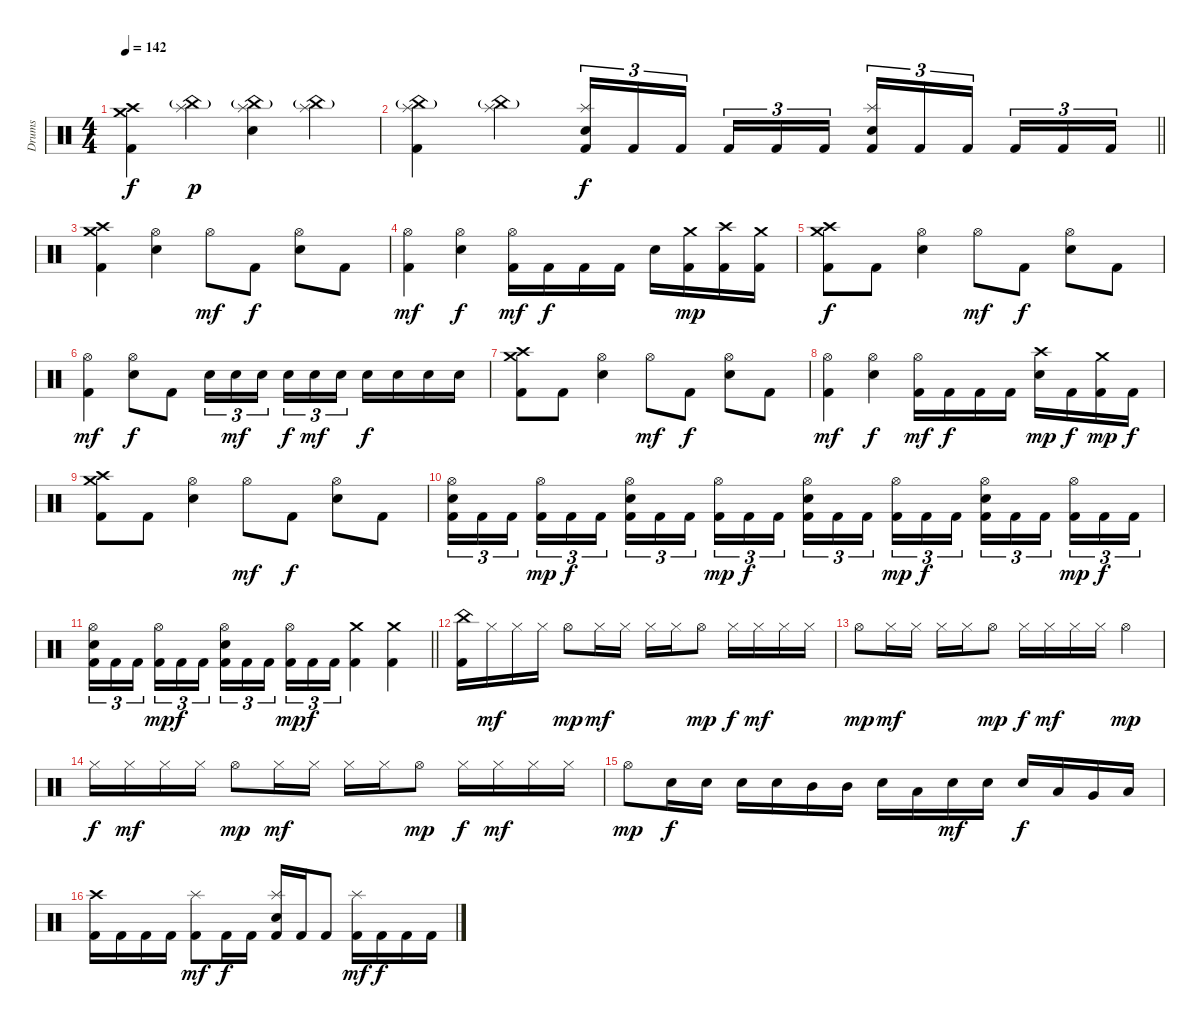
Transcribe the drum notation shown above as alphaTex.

\track ("Drums" "Drums") {instrument percussion}
\staff {score}
\articulation defaults
\ts (4 4)
\tempo 142
\clef neutral
\ks c
("Crash high (hit)" "Crash medium (hit)" "Kick (hit) 2").4{dy f} ("Splash (hit)" "China (hit)"{g}).4{dy p} ("Splash (hit)" "China (hit)"{g} "Electric Snare (hit)").4 ("Splash (hit)" "China (hit)"{g}).4 |
\barLineRight lightlight
("Splash (hit)" "China (hit)"{g} "Kick (hit) 2").4 ("Splash (hit)" "China (hit)"{g}).4 ("Splash (hit)" "Electric Snare (hit)" "Kick (hit) 2").16{tu (3 2) dy f} "Kick (hit) 2".16{tu (3 2)} "Kick (hit) 2".16{tu (3 2)} "Kick (hit) 2".16{tu (3 2)} "Kick (hit) 2".16{tu (3 2)} "Kick (hit) 2".16{tu (3 2)} ("Splash (hit)" "Electric Snare (hit)" "Kick (hit) 2").16{tu (3 2)} "Kick (hit) 2".16{tu (3 2)} "Kick (hit) 2".16{tu (3 2)} "Kick (hit) 2".16{tu (3 2)} "Kick (hit) 2".16{tu (3 2)} "Kick (hit) 2".16{tu (3 2)} |
("Crash high (hit)" "Crash medium (hit)" "Kick (hit) 2").4 ("Hi-Hat (open)" "Electric Snare (hit)").4 "Hi-Hat (open)".8{dy mf} "Kick (hit) 2".8{dy f} ("Hi-Hat (open)" "Electric Snare (hit)").8 "Kick (hit) 2".8 |
("Hi-Hat (open)" "Kick (hit) 2").4{dy mf} ("Hi-Hat (open)" "Electric Snare (hit)").4{dy f} ("Hi-Hat (open)" "Kick (hit) 2").16{dy mf} "Kick (hit) 2".16{dy f} "Kick (hit) 2".16 "Kick (hit) 2".16 "Electric Snare (hit)".16 ("Crash medium (hit)" "Kick (hit) 2").16{dy mp} ("Crash high (hit)" "Kick (hit) 2").16 ("Crash medium (hit)" "Kick (hit) 2").16 |
("Crash high (hit)" "Crash medium (hit)" "Kick (hit) 2").8{dy f} "Kick (hit) 2".8 ("Hi-Hat (open)" "Electric Snare (hit)").4 "Hi-Hat (open)".8{dy mf} "Kick (hit) 2".8{dy f} ("Hi-Hat (open)" "Electric Snare (hit)").8 "Kick (hit) 2".8 |
("Hi-Hat (open)" "Kick (hit) 2").4{dy mf} ("Hi-Hat (open)" "Electric Snare (hit)").8{dy f} "Kick (hit) 2".8 "Electric Snare (hit)".16{tu (3 2)} "Electric Snare (hit)".16{tu (3 2) dy mf} "Electric Snare (hit)".16{tu (3 2)} "Electric Snare (hit)".16{tu (3 2) dy f} "Electric Snare (hit)".16{tu (3 2) dy mf} "Electric Snare (hit)".16{tu (3 2)} "Electric Snare (hit)".16{dy f} "Electric Snare (hit)".16 "Electric Snare (hit)".16 "Electric Snare (hit)".16 |
("Crash high (hit)" "Crash medium (hit)" "Kick (hit) 2").8 "Kick (hit) 2".8 ("Hi-Hat (open)" "Electric Snare (hit)").4 "Hi-Hat (open)".8{dy mf} "Kick (hit) 2".8{dy f} ("Hi-Hat (open)" "Electric Snare (hit)").8 "Kick (hit) 2".8 |
("Hi-Hat (open)" "Kick (hit) 2").4{dy mf} ("Hi-Hat (open)" "Electric Snare (hit)").4{dy f} ("Hi-Hat (open)" "Kick (hit) 2").16{dy mf} "Kick (hit) 2".16{dy f} "Kick (hit) 2".16 "Kick (hit) 2".16 ("Crash high (hit)" "Electric Snare (hit)").16{dy mp} "Kick (hit) 2".16{dy f} ("Crash medium (hit)" "Kick (hit) 2").16{dy mp} "Kick (hit) 2".16{dy f} |
("Crash high (hit)" "Crash medium (hit)" "Kick (hit) 2").8 "Kick (hit) 2".8 ("Hi-Hat (open)" "Electric Snare (hit)").4 "Hi-Hat (open)".8{dy mf} "Kick (hit) 2".8{dy f} ("Hi-Hat (open)" "Electric Snare (hit)").8 "Kick (hit) 2".8 |
("Hi-Hat (open)" "Electric Snare (hit)" "Kick (hit) 2").16{tu (3 2)} "Kick (hit) 2".16{tu (3 2)} "Kick (hit) 2".16{tu (3 2)} ("Hi-Hat (open)" "Kick (hit) 2").16{tu (3 2) dy mp} "Kick (hit) 2".16{tu (3 2) dy f} "Kick (hit) 2".16{tu (3 2)} ("Hi-Hat (open)" "Electric Snare (hit)" "Kick (hit) 2").16{tu (3 2)} "Kick (hit) 2".16{tu (3 2)} "Kick (hit) 2".16{tu (3 2)} ("Hi-Hat (open)" "Kick (hit) 2").16{tu (3 2) dy mp} "Kick (hit) 2".16{tu (3 2) dy f} "Kick (hit) 2".16{tu (3 2)} ("Hi-Hat (open)" "Electric Snare (hit)" "Kick (hit) 2").16{tu (3 2)} "Kick (hit) 2".16{tu (3 2)} "Kick (hit) 2".16{tu (3 2)} ("Hi-Hat (open)" "Kick (hit) 2").16{tu (3 2) dy mp} "Kick (hit) 2".16{tu (3 2) dy f} "Kick (hit) 2".16{tu (3 2)} ("Hi-Hat (open)" "Electric Snare (hit)" "Kick (hit) 2").16{tu (3 2)} "Kick (hit) 2".16{tu (3 2)} "Kick (hit) 2".16{tu (3 2)} ("Hi-Hat (open)" "Kick (hit) 2").16{tu (3 2) dy mp} "Kick (hit) 2".16{tu (3 2) dy f} "Kick (hit) 2".16{tu (3 2)} |
\barLineRight lightlight
("Hi-Hat (open)" "Electric Snare (hit)" "Kick (hit) 2").16{tu (3 2)} "Kick (hit) 2".16{tu (3 2)} "Kick (hit) 2".16{tu (3 2)} ("Hi-Hat (open)" "Kick (hit) 2").16{tu (3 2) dy mp} "Kick (hit) 2".16{tu (3 2) dy f} "Kick (hit) 2".16{tu (3 2)} ("Hi-Hat (open)" "Electric Snare (hit)" "Kick (hit) 2").16{tu (3 2)} "Kick (hit) 2".16{tu (3 2)} "Kick (hit) 2".16{tu (3 2)} ("Hi-Hat (open)" "Kick (hit) 2").16{tu (3 2) dy mp} "Kick (hit) 2".16{tu (3 2) dy f} "Kick (hit) 2".16{tu (3 2)} ("Crash medium (hit)" "Kick (hit) 2").4 ("Crash medium (hit)" "Kick (hit) 2").4 |
("China (hit)" "Kick (hit) 2").16 "Hi-Hat (closed)".16{dy mf} "Hi-Hat (closed)".16 "Hi-Hat (closed)".16 "Hi-Hat (open)".8{dy mp} "Hi-Hat (closed)".16{dy mf} "Hi-Hat (closed)".16 "Hi-Hat (closed)".16 "Hi-Hat (closed)".16 "Hi-Hat (open)".8{dy mp} "Hi-Hat (closed)".16{dy f} "Hi-Hat (closed)".16{dy mf} "Hi-Hat (closed)".16 "Hi-Hat (closed)".16 |
"Hi-Hat (open)".8{dy mp} "Hi-Hat (closed)".16{dy mf} "Hi-Hat (closed)".16 "Hi-Hat (closed)".16 "Hi-Hat (closed)".16 "Hi-Hat (open)".8{dy mp} "Hi-Hat (closed)".16{dy f} "Hi-Hat (closed)".16{dy mf} "Hi-Hat (closed)".16 "Hi-Hat (closed)".16 "Hi-Hat (open)".4{dy mp} |
"Hi-Hat (closed)".16{dy f} "Hi-Hat (closed)".16{dy mf} "Hi-Hat (closed)".16 "Hi-Hat (closed)".16 "Hi-Hat (open)".8{dy mp} "Hi-Hat (closed)".16{dy mf} "Hi-Hat (closed)".16 "Hi-Hat (closed)".16 "Hi-Hat (closed)".16 "Hi-Hat (open)".8{dy mp} "Hi-Hat (closed)".16{dy f} "Hi-Hat (closed)".16{dy mf} "Hi-Hat (closed)".16 "Hi-Hat (closed)".16 |
"Hi-Hat (open)".8{dy mp} "Electric Snare (hit)".16{dy f} "Electric Snare (hit)".16 "Electric Snare (hit)".16 "Electric Snare (hit)".16 "Mid Tom (hit)".16 "Mid Tom (hit)".16 "Electric Snare (hit)".16 "Low Tom (hit)".16 "Electric Snare (hit)".16{dy mf} "Electric Snare (hit)".16 "Electric Snare (hit)".16{dy f} "Low Tom (hit)".16 "Very Low Tom (hit)".16 "Low Floor Tom (hit)".16 |
("Crash high (hit)" "Kick (hit) 2").16 "Kick (hit) 2".16 "Kick (hit) 2".16 "Kick (hit) 2".16 ("Splash (hit)" "Kick (hit) 2").8{dy mf} "Kick (hit) 2".16{dy f} "Kick (hit) 2".16 ("Splash (hit)" "Electric Snare (hit)" "Kick (hit) 2").16 "Kick (hit) 2".16 "Kick (hit) 2".8 ("Splash (hit)" "Kick (hit) 2").16{dy mf} "Kick (hit) 2".16{dy f} "Kick (hit) 2".16 "Kick (hit) 2".16
